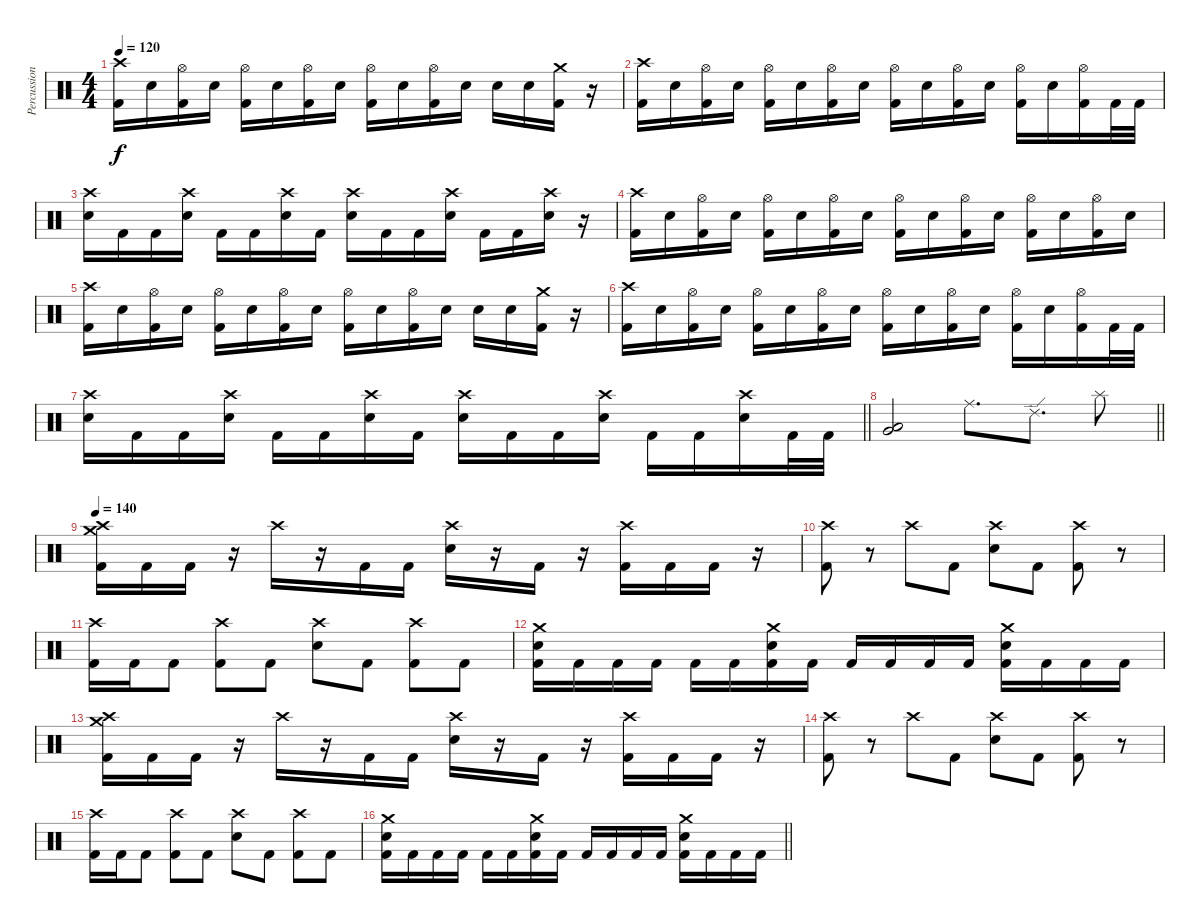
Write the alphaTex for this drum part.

\track ("Percussion" "Percussion") {instrument percussion}
\staff {score}
\articulation defaults
\ts (4 4)
\tempo 120
\clef neutral
\ks c
("Crash high (hit)" "Kick (hit) 2").16{dy f} "Snare (hit) 2".16 ("Hi-Hat (open)" "Kick (hit) 2").16 "Snare (hit) 2".16 ("Hi-Hat (open)" "Kick (hit) 2").16 "Snare (hit) 2".16 ("Hi-Hat (open)" "Kick (hit) 2").16 "Snare (hit) 2".16 ("Hi-Hat (open)" "Kick (hit) 2").16 "Snare (hit) 2".16 ("Hi-Hat (open)" "Kick (hit) 2").16 "Snare (hit) 2".16 "Snare (hit) 2".16 "Snare (hit) 2".16 ("Crash medium (hit)" "Kick (hit) 2").16 r.16 |
("Crash high (hit)" "Kick (hit) 2").16 "Snare (hit) 2".16 ("Hi-Hat (open)" "Kick (hit) 2").16 "Snare (hit) 2".16 ("Hi-Hat (open)" "Kick (hit) 2").16 "Snare (hit) 2".16 ("Hi-Hat (open)" "Kick (hit) 2").16 "Snare (hit) 2".16 ("Hi-Hat (open)" "Kick (hit) 2").16 "Snare (hit) 2".16 ("Hi-Hat (open)" "Kick (hit) 2").16 "Snare (hit) 2".16 ("Hi-Hat (open)" "Kick (hit) 2").16 "Snare (hit) 2".16 ("Hi-Hat (open)" "Kick (hit) 2").16 "Kick (hit) 2".32 "Kick (hit) 2".32 |
("Crash high (hit)" "Snare (hit) 2").16 "Kick (hit) 2".16 "Kick (hit) 2".16 ("Crash high (hit)" "Snare (hit) 2").16 "Kick (hit) 2".16 "Kick (hit) 2".16 ("Crash high (hit)" "Snare (hit) 2").16 "Kick (hit) 2".16 ("Crash high (hit)" "Snare (hit) 2").16 "Kick (hit) 2".16 "Kick (hit) 2".16 ("Crash high (hit)" "Snare (hit) 2").16 "Kick (hit) 2".16 "Kick (hit) 2".16 ("Crash high (hit)" "Snare (hit) 2").16 r.16 |
("Crash high (hit)" "Kick (hit) 2").16 "Snare (hit) 2".16 ("Hi-Hat (open)" "Kick (hit) 2").16 "Snare (hit) 2".16 ("Hi-Hat (open)" "Kick (hit) 2").16 "Snare (hit) 2".16 ("Hi-Hat (open)" "Kick (hit) 2").16 "Snare (hit) 2".16 ("Hi-Hat (open)" "Kick (hit) 2").16 "Snare (hit) 2".16 ("Hi-Hat (open)" "Kick (hit) 2").16 "Snare (hit) 2".16 ("Hi-Hat (open)" "Kick (hit) 2").16 "Snare (hit) 2".16 ("Hi-Hat (open)" "Kick (hit) 2").16 "Snare (hit) 2".16 |
("Crash high (hit)" "Kick (hit) 2").16 "Snare (hit) 2".16 ("Hi-Hat (open)" "Kick (hit) 2").16 "Snare (hit) 2".16 ("Hi-Hat (open)" "Kick (hit) 2").16 "Snare (hit) 2".16 ("Hi-Hat (open)" "Kick (hit) 2").16 "Snare (hit) 2".16 ("Hi-Hat (open)" "Kick (hit) 2").16 "Snare (hit) 2".16 ("Hi-Hat (open)" "Kick (hit) 2").16 "Snare (hit) 2".16 "Snare (hit) 2".16 "Snare (hit) 2".16 ("Crash medium (hit)" "Kick (hit) 2").16 r.16 |
("Crash high (hit)" "Kick (hit) 2").16 "Snare (hit) 2".16 ("Hi-Hat (open)" "Kick (hit) 2").16 "Snare (hit) 2".16 ("Hi-Hat (open)" "Kick (hit) 2").16 "Snare (hit) 2".16 ("Hi-Hat (open)" "Kick (hit) 2").16 "Snare (hit) 2".16 ("Hi-Hat (open)" "Kick (hit) 2").16 "Snare (hit) 2".16 ("Hi-Hat (open)" "Kick (hit) 2").16 "Snare (hit) 2".16 ("Hi-Hat (open)" "Kick (hit) 2").16 "Snare (hit) 2".16 ("Hi-Hat (open)" "Kick (hit) 2").16 "Kick (hit) 2".32 "Kick (hit) 2".32 |
\barLineRight lightlight
("Crash high (hit)" "Snare (hit) 2").16 "Kick (hit) 2".16 "Kick (hit) 2".16 ("Crash high (hit)" "Snare (hit) 2").16 "Kick (hit) 2".16 "Kick (hit) 2".16 ("Crash high (hit)" "Snare (hit) 2").16 "Kick (hit) 2".16 ("Crash high (hit)" "Snare (hit) 2").16 "Kick (hit) 2".16 "Kick (hit) 2".16 ("Crash high (hit)" "Snare (hit) 2").16 "Kick (hit) 2".16 "Kick (hit) 2".16 ("Crash high (hit)" "Snare (hit) 2").16 "Kick (hit) 2".32 "Kick (hit) 2".32 |
\section ("" "")
\barLineRight lightlight
("Low Tom (hit)" "Very Low Tom (hit)").2 "Ride (middle)".8{d} "Ride (edge) 2".8{d} "Splash (hit)".8 |
\section ("" "")
\tempo 140
("Crash high (hit)" "Crash medium (hit)" "Kick (hit) 2").16 "Kick (hit) 2".16 "Kick (hit) 2".16 r.16 "Crash high (hit)".16 r.16 "Kick (hit) 2".16 "Kick (hit) 2".16 ("Crash high (hit)" "Snare (hit) 2").16 r.16 "Kick (hit) 2".16 r.16 ("Crash high (hit)" "Kick (hit) 2").16 "Kick (hit) 2".16 "Kick (hit) 2".16 r.16 |
("Crash high (hit)" "Kick (hit) 2").8 r.8 "Crash high (hit)".8 "Kick (hit) 2".8 ("Crash high (hit)" "Snare (hit) 2").8 "Kick (hit) 2".8 ("Crash high (hit)" "Kick (hit) 2").8 r.8 |
("Crash high (hit)" "Kick (hit) 2").16 "Kick (hit) 2".16 "Kick (hit) 2".8 ("Crash high (hit)" "Kick (hit) 2").8 "Kick (hit) 2".8 ("Crash high (hit)" "Snare (hit) 2").8 "Kick (hit) 2".8 ("Crash high (hit)" "Kick (hit) 2").8 "Kick (hit) 2".8 |
("Crash medium (hit)" "Snare (hit) 2" "Kick (hit) 2").16 "Kick (hit) 2".16 "Kick (hit) 2".16 "Kick (hit) 2".16 "Kick (hit) 2".16 "Kick (hit) 2".16 ("Crash medium (hit)" "Snare (hit) 2" "Kick (hit) 2").16 "Kick (hit) 2".16 "Kick (hit) 2".16 "Kick (hit) 2".16 "Kick (hit) 2".16 "Kick (hit) 2".16 ("Crash medium (hit)" "Snare (hit) 2" "Kick (hit) 2").16 "Kick (hit) 2".16 "Kick (hit) 2".16 "Kick (hit) 2".16 |
("Crash high (hit)" "Crash medium (hit)" "Kick (hit) 2").16 "Kick (hit) 2".16 "Kick (hit) 2".16 r.16 "Crash high (hit)".16 r.16 "Kick (hit) 2".16 "Kick (hit) 2".16 ("Crash high (hit)" "Snare (hit) 2").16 r.16 "Kick (hit) 2".16 r.16 ("Crash high (hit)" "Kick (hit) 2").16 "Kick (hit) 2".16 "Kick (hit) 2".16 r.16 |
("Crash high (hit)" "Kick (hit) 2").8 r.8 "Crash high (hit)".8 "Kick (hit) 2".8 ("Crash high (hit)" "Snare (hit) 2").8 "Kick (hit) 2".8 ("Crash high (hit)" "Kick (hit) 2").8 r.8 |
("Crash high (hit)" "Kick (hit) 2").16 "Kick (hit) 2".16 "Kick (hit) 2".8 ("Crash high (hit)" "Kick (hit) 2").8 "Kick (hit) 2".8 ("Crash high (hit)" "Snare (hit) 2").8 "Kick (hit) 2".8 ("Crash high (hit)" "Kick (hit) 2").8 "Kick (hit) 2".8 |
\barLineRight lightlight
("Crash medium (hit)" "Snare (hit) 2" "Kick (hit) 2").16 "Kick (hit) 2".16 "Kick (hit) 2".16 "Kick (hit) 2".16 "Kick (hit) 2".16 "Kick (hit) 2".16 ("Crash medium (hit)" "Snare (hit) 2" "Kick (hit) 2").16 "Kick (hit) 2".16 "Kick (hit) 2".16 "Kick (hit) 2".16 "Kick (hit) 2".16 "Kick (hit) 2".16 ("Crash medium (hit)" "Snare (hit) 2" "Kick (hit) 2").16 "Kick (hit) 2".16 "Kick (hit) 2".16 "Kick (hit) 2".16
